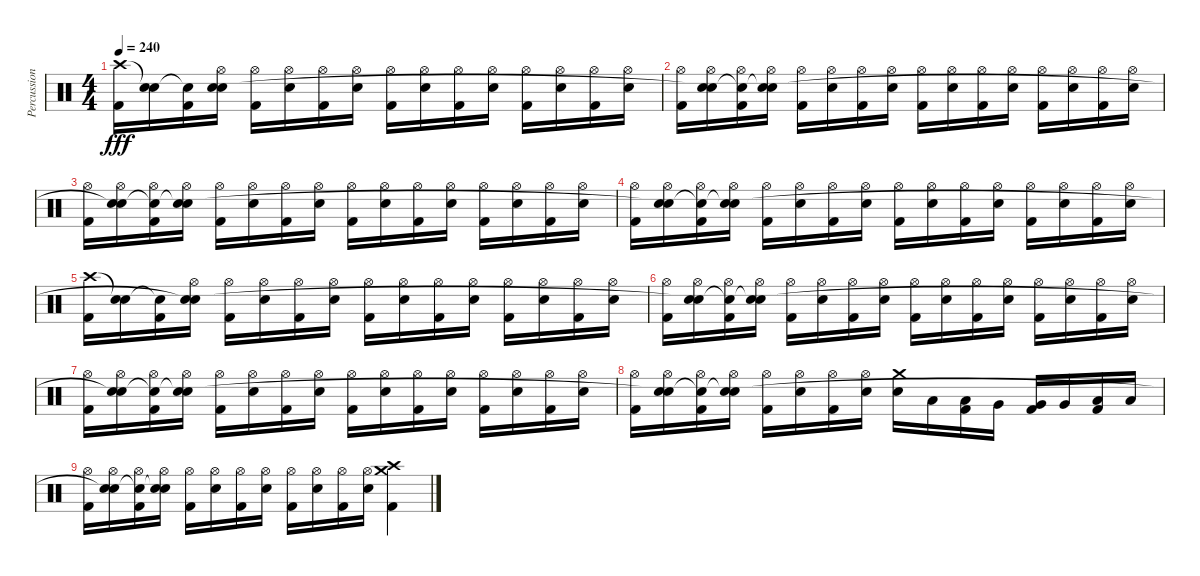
\track ("Percussion" "Percussion") {instrument percussion}
\staff {score}
\articulation defaults
\ts (4 4)
\tempo 240
\clef neutral
\ks c
("Kick (hit) 2" "Crash high (hit)").16{dy fff} ("Snare (hit) 2" "Snare (hit)"{t}).16 ("Kick (hit) 2" "Snare (hit)"{t}).16 ("Snare (hit) 2" "Hi-Hat (open)" "Snare (hit)"{t}).16 ("Kick (hit) 2" "Hi-Hat (open)").16 ("Snare (hit) 2" "Hi-Hat (open)").16 ("Kick (hit) 2" "Hi-Hat (open)").16 ("Snare (hit) 2" "Hi-Hat (open)").16 ("Kick (hit) 2" "Hi-Hat (open)").16 ("Snare (hit) 2" "Hi-Hat (open)").16 ("Kick (hit) 2" "Hi-Hat (open)").16 ("Snare (hit) 2" "Hi-Hat (open)").16 ("Kick (hit) 2" "Hi-Hat (open)").16 ("Snare (hit) 2" "Hi-Hat (open)").16 ("Kick (hit) 2" "Hi-Hat (open)").16 ("Snare (hit) 2" "Hi-Hat (open)").16 |
("Kick (hit) 2" "Hi-Hat (open)").16 ("Snare (hit) 2" "Hi-Hat (open)" "Snare (hit)"{t}).16 ("Kick (hit) 2" "Hi-Hat (open)" "Snare (hit)"{t}).16 ("Snare (hit) 2" "Hi-Hat (open)" "Snare (hit)"{t}).16 ("Kick (hit) 2" "Hi-Hat (open)").16 ("Snare (hit) 2" "Hi-Hat (open)").16 ("Kick (hit) 2" "Hi-Hat (open)").16 ("Snare (hit) 2" "Hi-Hat (open)").16 ("Kick (hit) 2" "Hi-Hat (open)").16 ("Snare (hit) 2" "Hi-Hat (open)").16 ("Kick (hit) 2" "Hi-Hat (open)").16 ("Snare (hit) 2" "Hi-Hat (open)").16 ("Kick (hit) 2" "Hi-Hat (open)").16 ("Snare (hit) 2" "Hi-Hat (open)").16 ("Kick (hit) 2" "Hi-Hat (open)").16 ("Snare (hit) 2" "Hi-Hat (open)").16 |
("Kick (hit) 2" "Hi-Hat (open)").16 ("Snare (hit) 2" "Hi-Hat (open)" "Snare (hit)"{t}).16 ("Kick (hit) 2" "Hi-Hat (open)" "Snare (hit)"{t}).16 ("Snare (hit) 2" "Hi-Hat (open)" "Snare (hit)"{t}).16 ("Kick (hit) 2" "Hi-Hat (open)").16 ("Snare (hit) 2" "Hi-Hat (open)").16 ("Kick (hit) 2" "Hi-Hat (open)").16 ("Snare (hit) 2" "Hi-Hat (open)").16 ("Kick (hit) 2" "Hi-Hat (open)").16 ("Snare (hit) 2" "Hi-Hat (open)").16 ("Kick (hit) 2" "Hi-Hat (open)").16 ("Snare (hit) 2" "Hi-Hat (open)").16 ("Kick (hit) 2" "Hi-Hat (open)").16 ("Snare (hit) 2" "Hi-Hat (open)").16 ("Kick (hit) 2" "Hi-Hat (open)").16 ("Snare (hit) 2" "Hi-Hat (open)").16 |
("Kick (hit) 2" "Hi-Hat (open)").16 ("Snare (hit) 2" "Hi-Hat (open)" "Snare (hit)"{t}).16 ("Kick (hit) 2" "Hi-Hat (open)" "Snare (hit)"{t}).16 ("Snare (hit) 2" "Hi-Hat (open)" "Snare (hit)"{t}).16 ("Kick (hit) 2" "Hi-Hat (open)").16 ("Snare (hit) 2" "Hi-Hat (open)").16 ("Kick (hit) 2" "Hi-Hat (open)").16 ("Snare (hit) 2" "Hi-Hat (open)").16 ("Kick (hit) 2" "Hi-Hat (open)").16 ("Snare (hit) 2" "Hi-Hat (open)").16 ("Kick (hit) 2" "Hi-Hat (open)").16 ("Snare (hit) 2" "Hi-Hat (open)").16 ("Kick (hit) 2" "Hi-Hat (open)").16 ("Snare (hit) 2" "Hi-Hat (open)").16 ("Kick (hit) 2" "Hi-Hat (open)").16 ("Snare (hit) 2" "Hi-Hat (open)").16 |
("Kick (hit) 2" "Crash high (hit)").16 ("Snare (hit) 2" "Snare (hit)"{t}).16 ("Kick (hit) 2" "Snare (hit)"{t}).16 ("Snare (hit) 2" "Hi-Hat (open)" "Snare (hit)"{t}).16 ("Kick (hit) 2" "Hi-Hat (open)").16 ("Snare (hit) 2" "Hi-Hat (open)").16 ("Kick (hit) 2" "Hi-Hat (open)").16 ("Snare (hit) 2" "Hi-Hat (open)").16 ("Kick (hit) 2" "Hi-Hat (open)").16 ("Snare (hit) 2" "Hi-Hat (open)").16 ("Kick (hit) 2" "Hi-Hat (open)").16 ("Snare (hit) 2" "Hi-Hat (open)").16 ("Kick (hit) 2" "Hi-Hat (open)").16 ("Snare (hit) 2" "Hi-Hat (open)").16 ("Kick (hit) 2" "Hi-Hat (open)").16 ("Snare (hit) 2" "Hi-Hat (open)").16 |
("Kick (hit) 2" "Hi-Hat (open)").16 ("Snare (hit) 2" "Hi-Hat (open)" "Snare (hit)"{t}).16 ("Kick (hit) 2" "Hi-Hat (open)" "Snare (hit)"{t}).16 ("Snare (hit) 2" "Hi-Hat (open)" "Snare (hit)"{t}).16 ("Kick (hit) 2" "Hi-Hat (open)").16 ("Snare (hit) 2" "Hi-Hat (open)").16 ("Kick (hit) 2" "Hi-Hat (open)").16 ("Snare (hit) 2" "Hi-Hat (open)").16 ("Kick (hit) 2" "Hi-Hat (open)").16 ("Snare (hit) 2" "Hi-Hat (open)").16 ("Kick (hit) 2" "Hi-Hat (open)").16 ("Snare (hit) 2" "Hi-Hat (open)").16 ("Kick (hit) 2" "Hi-Hat (open)").16 ("Snare (hit) 2" "Hi-Hat (open)").16 ("Kick (hit) 2" "Hi-Hat (open)").16 ("Snare (hit) 2" "Hi-Hat (open)").16 |
("Kick (hit) 2" "Hi-Hat (open)").16 ("Snare (hit) 2" "Hi-Hat (open)" "Snare (hit)"{t}).16 ("Kick (hit) 2" "Hi-Hat (open)" "Snare (hit)"{t}).16 ("Snare (hit) 2" "Hi-Hat (open)" "Snare (hit)"{t}).16 ("Kick (hit) 2" "Hi-Hat (open)").16 ("Snare (hit) 2" "Hi-Hat (open)").16 ("Kick (hit) 2" "Hi-Hat (open)").16 ("Snare (hit) 2" "Hi-Hat (open)").16 ("Kick (hit) 2" "Hi-Hat (open)").16 ("Snare (hit) 2" "Hi-Hat (open)").16 ("Kick (hit) 2" "Hi-Hat (open)").16 ("Snare (hit) 2" "Hi-Hat (open)").16 ("Kick (hit) 2" "Hi-Hat (open)").16 ("Snare (hit) 2" "Hi-Hat (open)").16 ("Kick (hit) 2" "Hi-Hat (open)").16 ("Snare (hit) 2" "Hi-Hat (open)").16 |
("Kick (hit) 2" "Hi-Hat (open)").16 ("Snare (hit) 2" "Hi-Hat (open)" "Snare (hit)"{t}).16 ("Kick (hit) 2" "Hi-Hat (open)" "Snare (hit)"{t}).16 ("Snare (hit) 2" "Hi-Hat (open)" "Snare (hit)"{t}).16 ("Kick (hit) 2" "Hi-Hat (open)").16 ("Snare (hit) 2" "Hi-Hat (open)").16 ("Kick (hit) 2" "Hi-Hat (open)").16 ("Snare (hit) 2" "Hi-Hat (open)").16 ("Snare (hit) 2" "Crash medium (hit)").16 "Low Tom (hit)".16 ("Kick (hit) 2" "Low Tom (hit)").16 "Very Low Tom (hit)".16 ("Kick (hit) 2" "Very Low Tom (hit)").16 "Very Low Tom (hit)".16 ("Kick (hit) 2" "Low Floor Tom (hit)").16 "Low Floor Tom (hit)".16 |
("Kick (hit) 2" "Hi-Hat (open)").16 ("Snare (hit) 2" "Hi-Hat (open)" "Snare (hit)"{t}).16 ("Kick (hit) 2" "Hi-Hat (open)" "Snare (hit)"{t}).16 ("Snare (hit) 2" "Hi-Hat (open)" "Snare (hit)"{t}).16 ("Kick (hit) 2" "Hi-Hat (open)").16 ("Snare (hit) 2" "Hi-Hat (open)").16 ("Kick (hit) 2" "Hi-Hat (open)").16 ("Snare (hit) 2" "Hi-Hat (open)").16 ("Kick (hit) 2" "Hi-Hat (open)").16 ("Snare (hit) 2" "Hi-Hat (open)").16 ("Kick (hit) 2" "Hi-Hat (open)").16 ("Snare (hit) 2" "Hi-Hat (open)").16 ("Kick (hit) 2" "Crash high (hit)" "Crash medium (hit)").4
